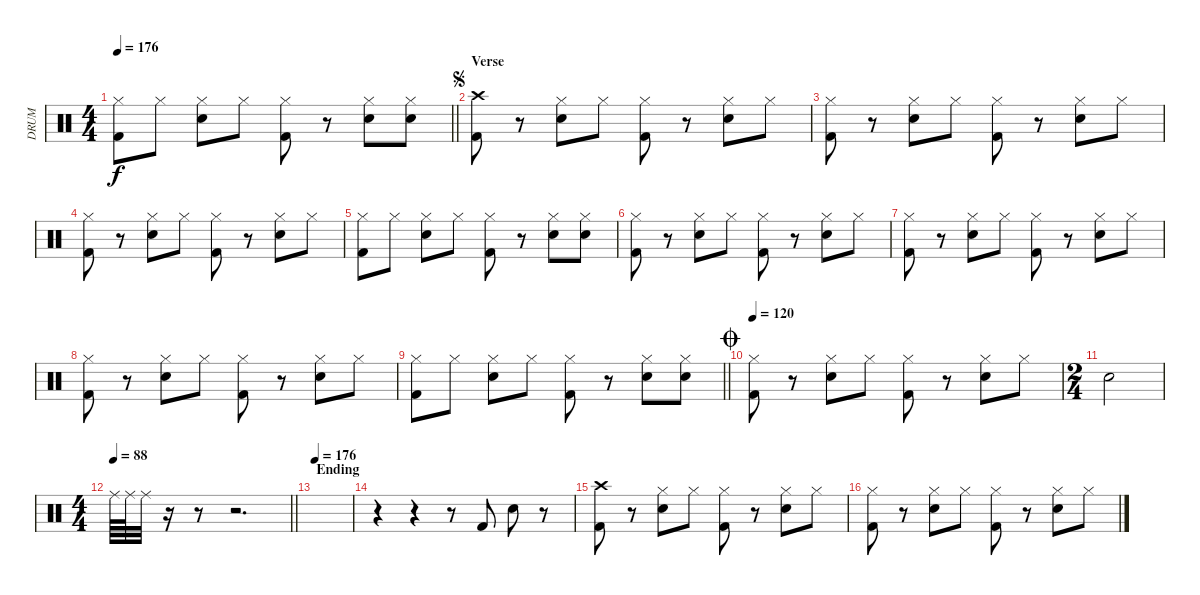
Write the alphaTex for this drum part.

\track ("DRUM" "DRUM") {instrument percussion}
\staff {score}
\articulation defaults
\ts (4 4)
\tempo 176
\clef neutral
\barLineRight lightlight
\ks c
("Hi-Hat (closed)" "Kick (hit) 2").8{dy f} "Hi-Hat (closed)".8 ("Hi-Hat (closed)" "Electric Snare (hit)").8 "Hi-Hat (closed)".8 ("Hi-Hat (closed)" "Kick (hit) 2").8 r.8 ("Hi-Hat (closed)" "Electric Snare (hit)").8 ("Hi-Hat (closed)" "Electric Snare (hit)").8 |
\section ("" "Verse")
\jump segno
("Crash high (hit)" "Kick (hit) 2").8 r.8 ("Hi-Hat (closed)" "Electric Snare (hit)").8 "Hi-Hat (closed)".8 ("Hi-Hat (closed)" "Kick (hit) 2").8 r.8 ("Hi-Hat (closed)" "Electric Snare (hit)").8 "Hi-Hat (closed)".8 |
("Hi-Hat (closed)" "Kick (hit) 2").8 r.8 ("Hi-Hat (closed)" "Electric Snare (hit)").8 "Hi-Hat (closed)".8 ("Hi-Hat (closed)" "Kick (hit) 2").8 r.8 ("Hi-Hat (closed)" "Electric Snare (hit)").8 "Hi-Hat (closed)".8 |
("Hi-Hat (closed)" "Kick (hit) 2").8 r.8 ("Hi-Hat (closed)" "Electric Snare (hit)").8 "Hi-Hat (closed)".8 ("Hi-Hat (closed)" "Kick (hit) 2").8 r.8 ("Hi-Hat (closed)" "Electric Snare (hit)").8 "Hi-Hat (closed)".8 |
("Hi-Hat (closed)" "Kick (hit) 2").8 "Hi-Hat (closed)".8 ("Hi-Hat (closed)" "Electric Snare (hit)").8 "Hi-Hat (closed)".8 ("Hi-Hat (closed)" "Kick (hit) 2").8 r.8 ("Hi-Hat (closed)" "Electric Snare (hit)").8 ("Hi-Hat (closed)" "Electric Snare (hit)").8 |
("Hi-Hat (closed)" "Kick (hit) 2").8 r.8 ("Hi-Hat (closed)" "Electric Snare (hit)").8 "Hi-Hat (closed)".8 ("Hi-Hat (closed)" "Kick (hit) 2").8 r.8 ("Hi-Hat (closed)" "Electric Snare (hit)").8 "Hi-Hat (closed)".8 |
("Hi-Hat (closed)" "Kick (hit) 2").8 r.8 ("Hi-Hat (closed)" "Electric Snare (hit)").8 "Hi-Hat (closed)".8 ("Hi-Hat (closed)" "Kick (hit) 2").8 r.8 ("Hi-Hat (closed)" "Electric Snare (hit)").8 "Hi-Hat (closed)".8 |
("Hi-Hat (closed)" "Kick (hit) 2").8 r.8 ("Hi-Hat (closed)" "Electric Snare (hit)").8 "Hi-Hat (closed)".8 ("Hi-Hat (closed)" "Kick (hit) 2").8 r.8 ("Hi-Hat (closed)" "Electric Snare (hit)").8 "Hi-Hat (closed)".8 |
\barLineRight lightlight
("Hi-Hat (closed)" "Kick (hit) 2").8 "Hi-Hat (closed)".8 ("Hi-Hat (closed)" "Electric Snare (hit)").8 "Hi-Hat (closed)".8 ("Hi-Hat (closed)" "Kick (hit) 2").8 r.8 ("Hi-Hat (closed)" "Electric Snare (hit)").8 ("Hi-Hat (closed)" "Electric Snare (hit)").8 |
\jump coda
\tempo 120
("Hi-Hat (closed)" "Kick (hit) 2").8 r.8 ("Hi-Hat (closed)" "Electric Snare (hit)").8 "Hi-Hat (closed)".8 ("Hi-Hat (closed)" "Kick (hit) 2").8 r.8 ("Hi-Hat (closed)" "Electric Snare (hit)").8 "Hi-Hat (closed)".8 |
\ts (2 4)
"Electric Snare (hit)".2 |
\ts (4 4)
\tempo 88
\barLineRight lightlight "Ride (middle)".64 "Ride (middle)".64 "Ride (middle)".32
r.16 r.8 r.2{d} |
\section ("" "Ending")
\tempo 176
|
r.4 r.4 r.8 "Kick (hit) 2".8 "Electric Snare (hit)".8 r.8 |
("Crash high (hit)" "Kick (hit) 2").8 r.8 ("Hi-Hat (closed)" "Electric Snare (hit)").8 "Hi-Hat (closed)".8 ("Hi-Hat (closed)" "Kick (hit) 2").8 r.8 ("Hi-Hat (closed)" "Electric Snare (hit)").8 "Hi-Hat (closed)".8 |
("Hi-Hat (closed)" "Kick (hit) 2").8 r.8 ("Hi-Hat (closed)" "Electric Snare (hit)").8 "Hi-Hat (closed)".8 ("Hi-Hat (closed)" "Kick (hit) 2").8 r.8 ("Hi-Hat (closed)" "Electric Snare (hit)").8 "Hi-Hat (closed)".8
